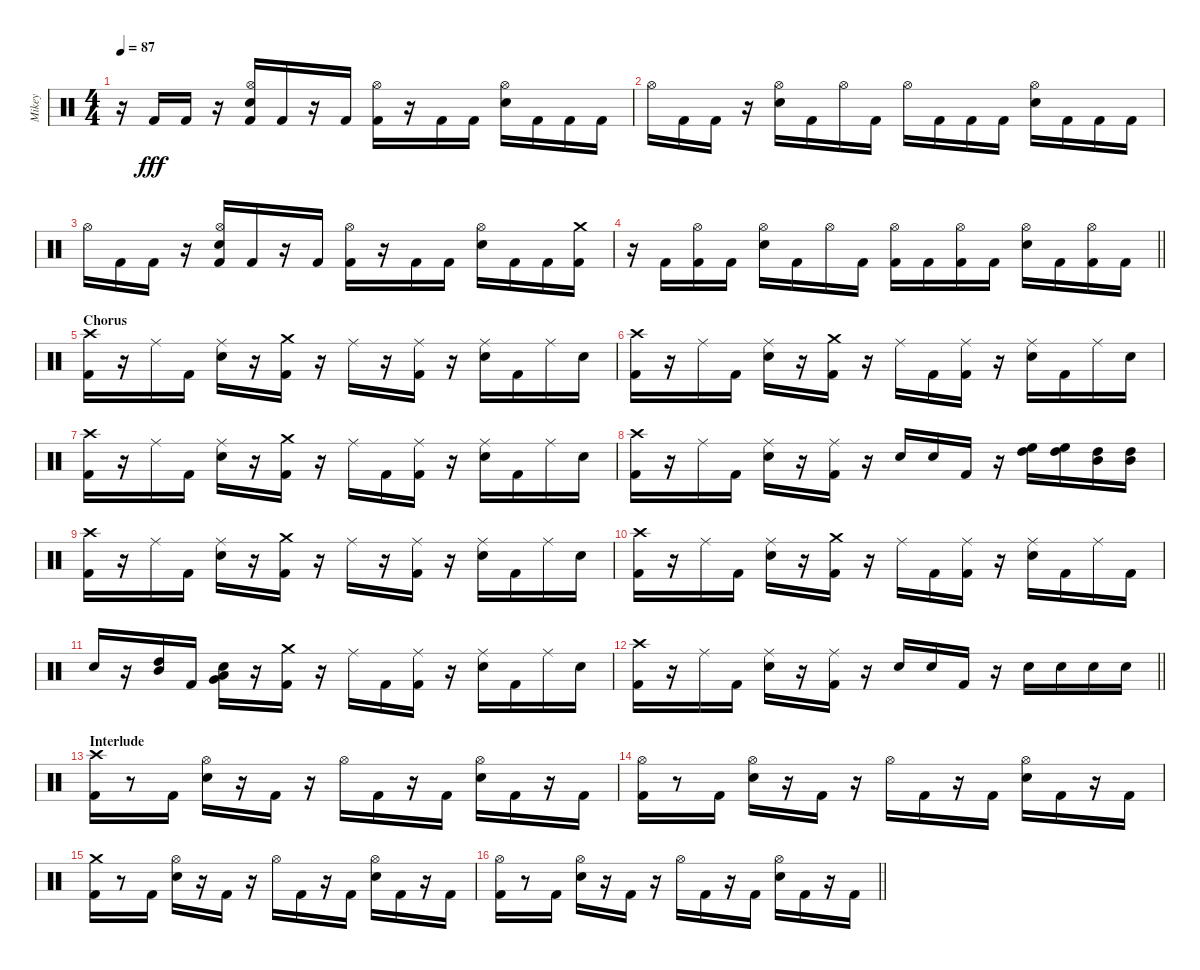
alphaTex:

\track ("Mikey" "Mikey") {instrument percussion}
\staff {score}
\articulation defaults
\ts (4 4)
\tempo 87
\clef neutral
\ks c
r.16{dy fff} "Kick (hit) 2".16 "Kick (hit) 2".16 r.16 ("Hi-Hat (open)" "Kick (hit) 2" "Electric Snare (hit)").16 "Kick (hit) 2".16 r.16 "Kick (hit) 2".16 ("Hi-Hat (open)" "Kick (hit) 2").16 r.16 "Kick (hit) 2".16 "Kick (hit) 2".16 ("Hi-Hat (open)" "Electric Snare (hit)").16 "Kick (hit) 2".16 "Kick (hit) 2".16 "Kick (hit) 2".16 |
"Hi-Hat (open)".16 "Kick (hit) 2".16 "Kick (hit) 2".16 r.16 ("Electric Snare (hit)" "Hi-Hat (open)").16 "Kick (hit) 2".16 "Hi-Hat (open)".16 "Kick (hit) 2".16 "Hi-Hat (open)".16 "Kick (hit) 2".16 "Kick (hit) 2".16 "Kick (hit) 2".16 ("Electric Snare (hit)" "Hi-Hat (open)").16 "Kick (hit) 2".16 "Kick (hit) 2".16 "Kick (hit) 2".16 |
"Hi-Hat (open)".16 "Kick (hit) 2".16 "Kick (hit) 2".16 r.16 ("Hi-Hat (open)" "Kick (hit) 2" "Electric Snare (hit)").16 "Kick (hit) 2".16 r.16 "Kick (hit) 2".16 ("Hi-Hat (open)" "Kick (hit) 2").16 r.16 "Kick (hit) 2".16 "Kick (hit) 2".16 ("Hi-Hat (open)" "Electric Snare (hit)").16 "Kick (hit) 2".16 "Kick (hit) 2".16 ("Crash medium (hit)" "Kick (hit) 2").16 |
\barLineRight lightlight
r.16 "Kick (hit) 2".16 ("Hi-Hat (open)" "Kick (hit) 2").16 "Kick (hit) 2".16 ("Hi-Hat (open)" "Electric Snare (hit)").16 "Kick (hit) 2".16 "Hi-Hat (open)".16 "Kick (hit) 2".16 ("Kick (hit) 2" "Hi-Hat (open)").16 "Kick (hit) 2".16 ("Kick (hit) 2" "Hi-Hat (open)").16 "Kick (hit) 2".16 ("Hi-Hat (open)" "Electric Snare (hit)").16 "Kick (hit) 2".16 ("Kick (hit) 2" "Hi-Hat (open)").16 "Kick (hit) 2".16 |
\section ("" "Chorus")
("Kick (hit) 2" "Crash high (hit)").16 r.16 "Ride (middle)".16 "Kick (hit) 2".16 ("Electric Snare (hit)" "Ride (middle)").16 r.16 ("Crash medium (hit)" "Kick (hit) 2").16 r.16 "Ride (middle)".16 r.16 ("Kick (hit) 2" "Ride (middle)").16 r.16 ("Electric Snare (hit)" "Ride (middle)").16 "Kick (hit) 2".16 "Ride (middle)".16 "Electric Snare (hit)".16 |
("Kick (hit) 2" "Crash high (hit)").16 r.16 "Ride (middle)".16 "Kick (hit) 2".16 ("Electric Snare (hit)" "Ride (middle)").16 r.16 ("Crash medium (hit)" "Kick (hit) 2").16 r.16 "Ride (middle)".16 "Kick (hit) 2".16 ("Kick (hit) 2" "Ride (middle)").16 r.16 ("Electric Snare (hit)" "Ride (middle)").16 "Kick (hit) 2".16 "Ride (middle)".16 "Electric Snare (hit)".16 |
("Kick (hit) 2" "Crash high (hit)").16 r.16 "Ride (middle)".16 "Kick (hit) 2".16 ("Ride (middle)" "Electric Snare (hit)").16 r.16 ("Crash medium (hit)" "Kick (hit) 2").16 r.16 "Ride (middle)".16 "Kick (hit) 2".16 ("Ride (middle)" "Kick (hit) 2").16 r.16 ("Electric Snare (hit)" "Ride (middle)").16 "Kick (hit) 2".16 "Ride (middle)".16 "Electric Snare (hit)".16 |
("Kick (hit) 2" "Crash high (hit)").16 r.16 "Ride (middle)".16 "Kick (hit) 2".16 ("Electric Snare (hit)" "Ride (middle)").16 r.16 ("Kick (hit) 2" "Ride (middle)").16 r.16 "Electric Snare (hit)".16 "Electric Snare (hit)".16 "Kick (hit) 2".16 r.16 ("High Floor Tom (hit)" "High Tom (hit)").16 ("High Floor Tom (hit)" "High Tom (hit)").16 ("High Tom (hit)" "Mid Tom (hit)").16 ("High Tom (hit)" "Mid Tom (hit)").16 |
("Kick (hit) 2" "Crash high (hit)").16 r.16 "Ride (middle)".16 "Kick (hit) 2".16 ("Ride (middle)" "Electric Snare (hit)").16 r.16 ("Crash medium (hit)" "Kick (hit) 2").16 r.16 "Ride (middle)".16 r.16 ("Ride (middle)" "Kick (hit) 2").16 r.16 ("Electric Snare (hit)" "Ride (middle)").16 "Kick (hit) 2".16 "Ride (middle)".16 "Electric Snare (hit)".16 |
("Kick (hit) 2" "Crash high (hit)").16 r.16 "Ride (middle)".16 "Kick (hit) 2".16 ("Electric Snare (hit)" "Ride (middle)").16 r.16 ("Crash medium (hit)" "Kick (hit) 2").16 r.16 "Ride (middle)".16 "Kick (hit) 2".16 ("Ride (middle)" "Kick (hit) 2").16 r.16 ("Ride (middle)" "Electric Snare (hit)").16 "Kick (hit) 2".16 "Ride (middle)".16 "Kick (hit) 2".16 |
"Electric Snare (hit)".16 r.16 ("High Tom (hit)" "Mid Tom (hit)").16 "Kick (hit) 2".16 ("Low Tom (hit)" "Very Low Tom (hit)" "Electric Snare (hit)").16 r.16 ("Kick (hit) 2" "Crash medium (hit)").16 r.16 "Ride (middle)".16 "Kick (hit) 2".16 ("Ride (middle)" "Kick (hit) 2").16 r.16 ("Ride (middle)" "Electric Snare (hit)").16 "Kick (hit) 2".16 "Ride (middle)".16 "Electric Snare (hit)".16 |
\barLineRight lightlight
("Kick (hit) 2" "Crash high (hit)").16 r.16 "Ride (middle)".16 "Kick (hit) 2".16 ("Ride (middle)" "Electric Snare (hit)").16 r.16 ("Ride (middle)" "Kick (hit) 2").16 r.16 "Electric Snare (hit)".16 "Electric Snare (hit)".16 "Kick (hit) 2".16 r.16 "Electric Snare (hit)".16 "Electric Snare (hit)".16 "Electric Snare (hit)".16 "Electric Snare (hit)".16 |
\section ("" "Interlude")
("Kick (hit) 2" "Crash high (hit)").16 r.8 "Kick (hit) 2".16 ("Hi-Hat (open)" "Electric Snare (hit)").16 r.16 "Kick (hit) 2".16 r.16 "Hi-Hat (open)".16 "Kick (hit) 2".16 r.16 "Kick (hit) 2".16 ("Electric Snare (hit)" "Hi-Hat (open)").16 "Kick (hit) 2".16 r.16 "Kick (hit) 2".16 |
("Hi-Hat (open)" "Kick (hit) 2").16 r.8 "Kick (hit) 2".16 ("Hi-Hat (open)" "Electric Snare (hit)").16 r.16 "Kick (hit) 2".16 r.16 "Hi-Hat (open)".16 "Kick (hit) 2".16 r.16 "Kick (hit) 2".16 ("Electric Snare (hit)" "Hi-Hat (open)").16 "Kick (hit) 2".16 r.16 "Kick (hit) 2".16 |
("Kick (hit) 2" "Crash medium (hit)").16 r.8 "Kick (hit) 2".16 ("Hi-Hat (open)" "Electric Snare (hit)").16 r.16 "Kick (hit) 2".16 r.16 "Hi-Hat (open)".16 "Kick (hit) 2".16 r.16 "Kick (hit) 2".16 ("Electric Snare (hit)" "Hi-Hat (open)").16 "Kick (hit) 2".16 r.16 "Kick (hit) 2".16 |
\barLineRight lightlight
("Hi-Hat (open)" "Kick (hit) 2").16 r.8 "Kick (hit) 2".16 ("Hi-Hat (open)" "Electric Snare (hit)").16 r.16 "Kick (hit) 2".16 r.16 "Hi-Hat (open)".16 "Kick (hit) 2".16 r.16 "Kick (hit) 2".16 ("Electric Snare (hit)" "Hi-Hat (open)").16 "Kick (hit) 2".16 r.16 "Kick (hit) 2".16
